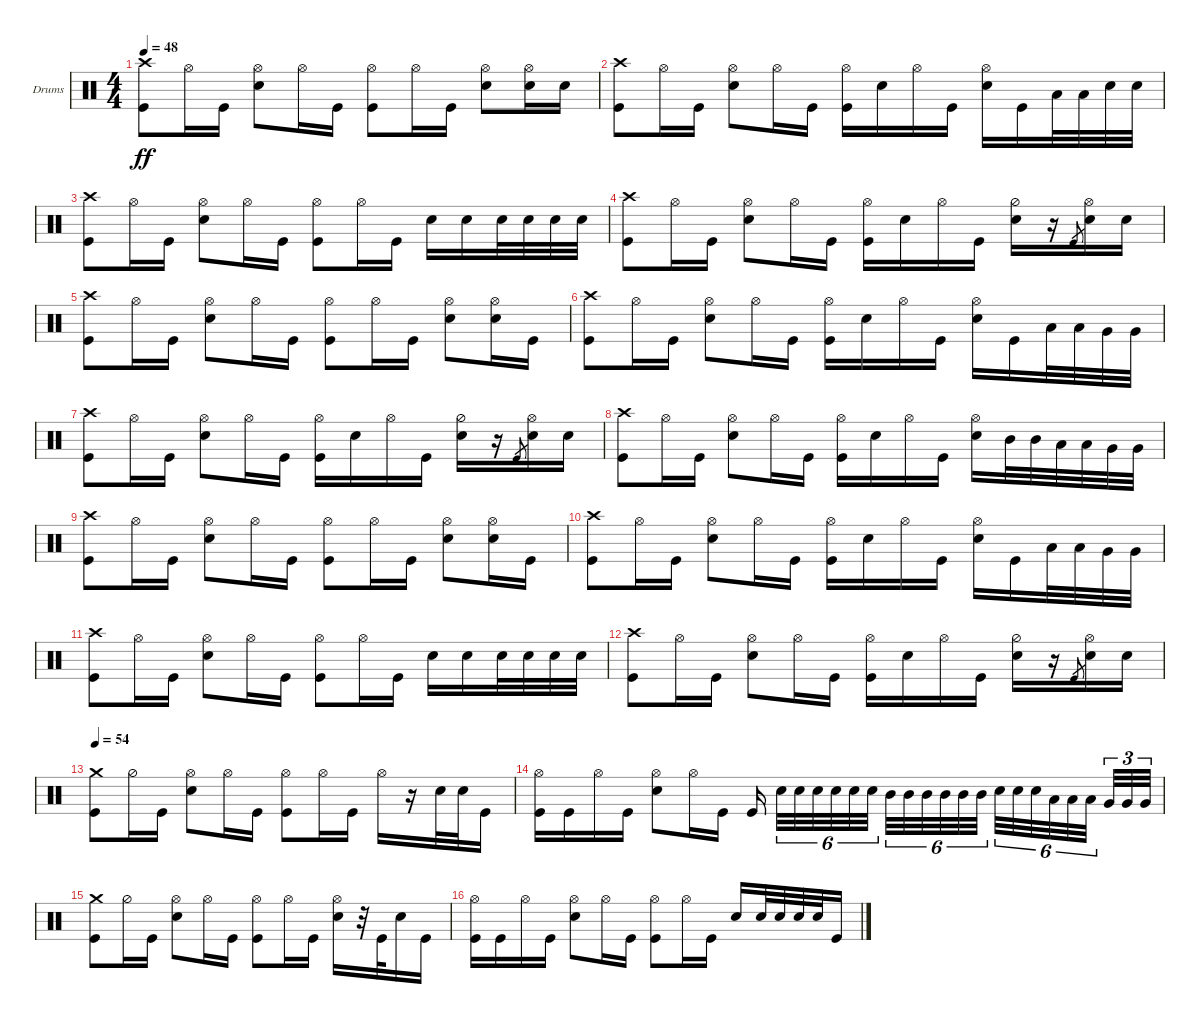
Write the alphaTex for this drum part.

\bracketExtendMode groupsimilarinstruments
\firstSystemTrackNameOrientation horizontal
\otherSystemsTrackNameOrientation horizontal
\track ("Drumkit" "Drums") {instrument percussion}
\staff {score}
\articulation defaults
\ts (4 4)
\tempo 48
\clef neutral
\ks c
("Kick (hit)" "Crash high (hit)").8{dy ff} "Hi-Hat (open)".16 "Kick (hit)".16 ("Snare (hit) 2" "Hi-Hat (open)").8 "Hi-Hat (open)".16 "Kick (hit)".16 ("Kick (hit)" "Hi-Hat (open)").8 "Hi-Hat (open)".16 "Kick (hit)".16 ("Hi-Hat (open)" "Snare (hit) 2").8 ("Snare (hit) 2" "Hi-Hat (open)").16 "Snare (hit) 2".16 |
("Kick (hit)" "Crash high (hit)").8 "Hi-Hat (open)".16 "Kick (hit)".16 ("Snare (hit) 2" "Hi-Hat (open)").8 "Hi-Hat (open)".16 "Kick (hit)".16 ("Kick (hit)" "Hi-Hat (open)").16 "Snare (hit) 2".16 "Hi-Hat (open)".16 "Kick (hit)".16 ("Snare (hit) 2" "Hi-Hat (open)").16 "Kick (hit)".16 "Low Tom (hit)".32 "Low Tom (hit)".32 "Snare (hit) 2".32 "Snare (hit) 2".32 |
("Kick (hit)" "Crash high (hit)").8 "Hi-Hat (open)".16 "Kick (hit)".16 ("Snare (hit) 2" "Hi-Hat (open)").8 "Hi-Hat (open)".16 "Kick (hit)".16 ("Kick (hit)" "Hi-Hat (open)").8 "Hi-Hat (open)".16 "Kick (hit)".16 "Snare (hit) 2".16 "Snare (hit) 2".16 "Snare (hit) 2".32 "Snare (hit) 2".32 "Snare (hit) 2".32 "Snare (hit) 2".32 |
("Kick (hit)" "Crash high (hit)").8 "Hi-Hat (open)".16 "Kick (hit)".16 ("Snare (hit) 2" "Hi-Hat (open)").8 "Hi-Hat (open)".16 "Kick (hit)".16 ("Kick (hit)" "Hi-Hat (open)").16 "Snare (hit) 2".16 "Hi-Hat (open)".16 "Kick (hit)".16 ("Snare (hit) 2" "Hi-Hat (half)").16 r.16 "Kick (hit)".8{gr} ("Snare (hit) 2" "Hi-Hat (open)").16 "Snare (hit) 2".16 |
("Kick (hit)" "Crash high (hit)").8 "Hi-Hat (open)".16 "Kick (hit)".16 ("Snare (hit) 2" "Hi-Hat (open)").8 "Hi-Hat (open)".16 "Kick (hit)".16 ("Kick (hit)" "Hi-Hat (open)").8 "Hi-Hat (open)".16 "Kick (hit)".16 ("Hi-Hat (open)" "Snare (hit) 2").8 ("Snare (hit) 2" "Hi-Hat (open)").16 "Kick (hit)".16 |
("Kick (hit)" "Crash high (hit)").8 "Hi-Hat (open)".16 "Kick (hit)".16 ("Snare (hit) 2" "Hi-Hat (open)").8 "Hi-Hat (open)".16 "Kick (hit)".16 ("Kick (hit)" "Hi-Hat (open)").16 "Snare (hit) 2".16 "Hi-Hat (open)".16 "Kick (hit)".16 ("Snare (hit) 2" "Hi-Hat (open)").16 "Kick (hit)".16 "Low Tom (hit)".32 "Low Tom (hit)".32 "Very Low Tom (hit)".32 "Very Low Tom (hit)".32 |
("Kick (hit)" "Crash high (hit)").8 "Hi-Hat (open)".16 "Kick (hit)".16 ("Snare (hit) 2" "Hi-Hat (open)").8 "Hi-Hat (open)".16 "Kick (hit)".16 ("Kick (hit)" "Hi-Hat (open)").16 "Snare (hit) 2".16 "Hi-Hat (open)".16 "Kick (hit)".16 ("Snare (hit) 2" "Hi-Hat (half)").16 r.16 "Kick (hit)".8{gr} ("Snare (hit) 2" "Hi-Hat (open)").16 "Snare (hit) 2".16 |
("Kick (hit)" "Crash high (hit)").8 "Hi-Hat (open)".16 "Kick (hit)".16 ("Snare (hit) 2" "Hi-Hat (open)").8 "Hi-Hat (open)".16 "Kick (hit)".16 ("Kick (hit)" "Hi-Hat (open)").16 "Snare (hit) 2".16 "Hi-Hat (open)".16 "Kick (hit)".16 ("Snare (hit) 2" "Hi-Hat (open)").16 "Mid Tom (hit)".32 "Mid Tom (hit)".32 "Low Tom (hit)".32 "Low Tom (hit)".32 "Very Low Tom (hit)".32 "Very Low Tom (hit)".32 |
("Kick (hit)" "Crash high (hit)").8 "Hi-Hat (open)".16 "Kick (hit)".16 ("Snare (hit) 2" "Hi-Hat (open)").8 "Hi-Hat (open)".16 "Kick (hit)".16 ("Kick (hit)" "Hi-Hat (open)").8 "Hi-Hat (open)".16 "Kick (hit)".16 ("Hi-Hat (open)" "Snare (hit) 2").8 ("Snare (hit) 2" "Hi-Hat (open)").16 "Kick (hit)".16 |
("Kick (hit)" "Crash high (hit)").8 "Hi-Hat (open)".16 "Kick (hit)".16 ("Snare (hit) 2" "Hi-Hat (open)").8 "Hi-Hat (open)".16 "Kick (hit)".16 ("Kick (hit)" "Hi-Hat (open)").16 "Snare (hit) 2".16 "Hi-Hat (open)".16 "Kick (hit)".16 ("Snare (hit) 2" "Hi-Hat (open)").16 "Kick (hit)".16 "Low Tom (hit)".32 "Low Tom (hit)".32 "Very Low Tom (hit)".32 "Very Low Tom (hit)".32 |
("Kick (hit)" "Crash high (hit)").8 "Hi-Hat (open)".16 "Kick (hit)".16 ("Snare (hit) 2" "Hi-Hat (open)").8 "Hi-Hat (open)".16 "Kick (hit)".16 ("Kick (hit)" "Hi-Hat (open)").8 "Hi-Hat (open)".16 "Kick (hit)".16 "Snare (hit) 2".16 "Snare (hit) 2".16 "Snare (hit) 2".32 "Snare (hit) 2".32 "Snare (hit) 2".32 "Snare (hit) 2".32 |
("Kick (hit)" "Crash high (hit)").8 "Hi-Hat (open)".16 "Kick (hit)".16 ("Snare (hit) 2" "Hi-Hat (open)").8 "Hi-Hat (open)".16 "Kick (hit)".16 ("Kick (hit)" "Hi-Hat (open)").16 "Snare (hit) 2".16 "Hi-Hat (open)".16 "Kick (hit)".16 ("Snare (hit) 2" "Hi-Hat (half)").16 r.16 "Kick (hit)".8{gr} ("Snare (hit) 2" "Hi-Hat (open)").16 "Snare (hit) 2".16 |
\tempo 54
("Crash medium (hit)" "Kick (hit)").8 "Hi-Hat (half)".16 "Kick (hit)".16 ("Snare (hit) 2" "Hi-Hat (open)").8 "Hi-Hat (open)".16 "Kick (hit)".16 ("Kick (hit)" "Hi-Hat (open)").8 "Hi-Hat (open)".16 "Kick (hit)".16 "Hi-Hat (open)".16 r.16 "Snare (hit) 2".32 "Snare (hit) 2".32 "Kick (hit)".16 |
("Kick (hit)" "Hi-Hat (open)").16 "Kick (hit)".16 "Hi-Hat (open)".16 "Kick (hit)".16 ("Snare (hit) 2" "Hi-Hat (open)").8 "Hi-Hat (open)".16 "Kick (hit)".16 "Kick (hit)".16 "Snare (hit) 2".32{tu (6 4)} "Snare (hit) 2".32{tu (6 4)} "Snare (hit) 2".32{tu (6 4)} "Snare (hit) 2".32{tu (6 4)} "Snare (hit) 2".32{tu (6 4)} "Snare (hit) 2".32{tu (6 4)} "Mid Tom (hit)".32{tu (6 4)} "Mid Tom (hit)".32{tu (6 4)} "Mid Tom (hit)".32{tu (6 4)} "Mid Tom (hit)".32{tu (6 4)} "Mid Tom (hit)".32{tu (6 4)} "Mid Tom (hit)".32{tu (6 4)} "Snare (hit) 2".32{tu (6 4)} "Snare (hit) 2".32{tu (6 4)} "Snare (hit) 2".32{tu (6 4)} "Low Tom (hit)".32{tu (6 4)} "Low Tom (hit)".32{tu (6 4)} "Low Tom (hit)".32{tu (6 4)} "Very Low Tom (hit)".32{tu (3 2)} "Very Low Tom (hit)".32{tu (3 2)} "Very Low Tom (hit)".32{tu (3 2)} |
("Crash medium (hit)" "Kick (hit)").8 "Hi-Hat (half)".16 "Kick (hit)".16 ("Snare (hit) 2" "Hi-Hat (open)").8 "Hi-Hat (open)".16 "Kick (hit)".16 ("Kick (hit)" "Hi-Hat (open)").8 "Hi-Hat (open)".16 "Kick (hit)".16 ("Hi-Hat (open)" "Snare (hit) 2").16 r.32 "Kick (hit)".32 "Snare (hit) 2".16 "Kick (hit)".16 |
("Kick (hit)" "Hi-Hat (open)").16 "Kick (hit)".16 "Hi-Hat (open)".16 "Kick (hit)".16 ("Snare (hit) 2" "Hi-Hat (open)").8 "Hi-Hat (open)".16 "Kick (hit)".16 ("Kick (hit)" "Hi-Hat (open)").8 "Hi-Hat (open)".16 "Kick (hit)".16 "Snare (hit) 2".16 "Snare (hit) 2".32 "Snare (hit) 2".32 "Snare (hit) 2".32 "Snare (hit) 2".32 "Kick (hit)".16
